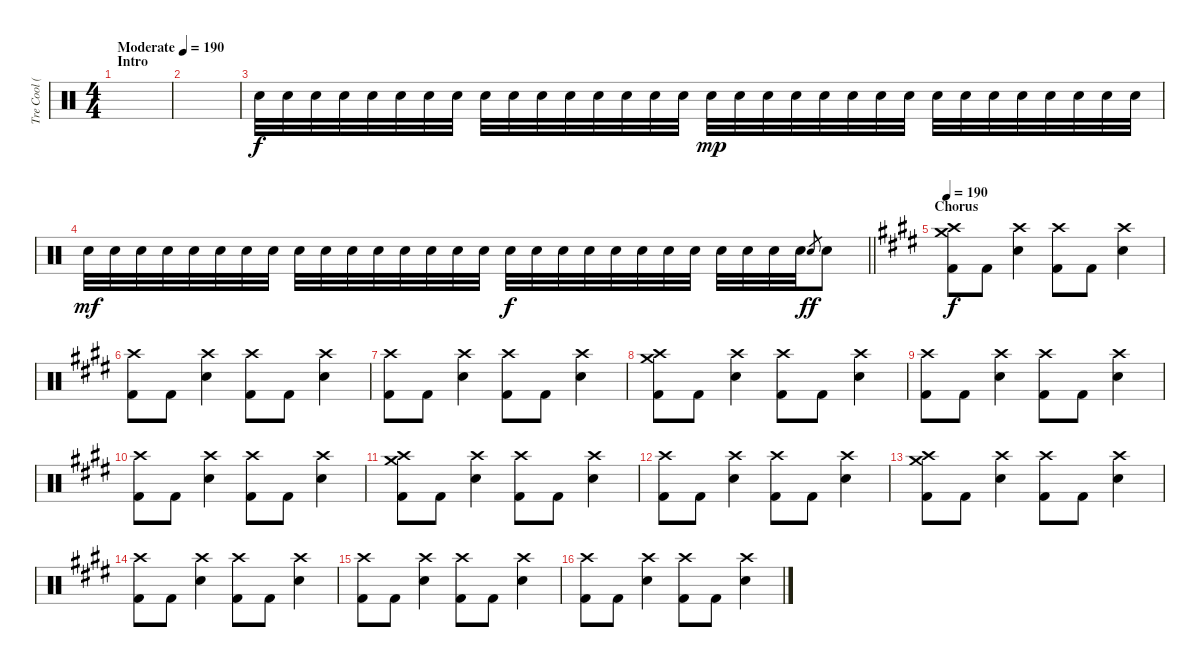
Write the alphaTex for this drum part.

\track ("Tre Cool (Drums)" "Tre Cool (") {instrument percussion}
\staff {score}
\articulation defaults
\ts (4 4)
\section ("" "Intro")
\tempo (190 "Moderate")
\tempo 100
\tempo (190 "Moderate")
\clef neutral
\ks c
|
|
"Electric Snare (hit)".32 "Electric Snare (hit)".32 "Electric Snare (hit)".32 "Electric Snare (hit)".32 "Electric Snare (hit)".32 "Electric Snare (hit)".32 "Electric Snare (hit)".32 "Electric Snare (hit)".32 "Electric Snare (hit)".32 "Electric Snare (hit)".32 "Electric Snare (hit)".32 "Electric Snare (hit)".32 "Electric Snare (hit)".32 "Electric Snare (hit)".32 "Electric Snare (hit)".32 "Electric Snare (hit)".32 "Electric Snare (hit)".32{dy mp} "Electric Snare (hit)".32 "Electric Snare (hit)".32 "Electric Snare (hit)".32 "Electric Snare (hit)".32 "Electric Snare (hit)".32 "Electric Snare (hit)".32 "Electric Snare (hit)".32 "Electric Snare (hit)".32 "Electric Snare (hit)".32 "Electric Snare (hit)".32 "Electric Snare (hit)".32 "Electric Snare (hit)".32 "Electric Snare (hit)".32 "Electric Snare (hit)".32 "Electric Snare (hit)".32 |
\barLineRight lightlight "Electric Snare (hit)".32{dy mf} "Electric Snare (hit)".32 "Electric Snare (hit)".32 "Electric Snare (hit)".32 "Electric Snare (hit)".32 "Electric Snare (hit)".32 "Electric Snare (hit)".32 "Electric Snare (hit)".32 "Electric Snare (hit)".32 "Electric Snare (hit)".32 "Electric Snare (hit)".32 "Electric Snare (hit)".32 "Electric Snare (hit)".32 "Electric Snare (hit)".32 "Electric Snare (hit)".32 "Electric Snare (hit)".32 "Electric Snare (hit)".32{dy f} "Electric Snare (hit)".32 "Electric Snare (hit)".32 "Electric Snare (hit)".32 "Electric Snare (hit)".32 "Electric Snare (hit)".32 "Electric Snare (hit)".32 "Electric Snare (hit)".32 "Electric Snare (hit)".32 "Electric Snare (hit)".32 "Electric Snare (hit)".32 "Electric Snare (hit)".32 "Electric Snare (hit)".8{gr dy ff} "Electric Snare (hit)".8
|
\section ("" "Chorus")
\tempo 190
\ks e
("Kick (hit) 2" "Crash medium (hit)" "Crash high (hit)").8{dy f} "Kick (hit) 2".8 ("Electric Snare (hit)" "Crash high (hit)").4 ("Kick (hit) 2" "Crash high (hit)").8 "Kick (hit) 2".8 ("Electric Snare (hit)" "Crash high (hit)").4 |
("Kick (hit) 2" "Crash high (hit)").8 "Kick (hit) 2".8 ("Electric Snare (hit)" "Crash high (hit)").4 ("Kick (hit) 2" "Crash high (hit)").8 "Kick (hit) 2".8 ("Electric Snare (hit)" "Crash high (hit)").4 |
("Kick (hit) 2" "Crash high (hit)").8 "Kick (hit) 2".8 ("Electric Snare (hit)" "Crash high (hit)").4 ("Kick (hit) 2" "Crash high (hit)").8 "Kick (hit) 2".8 ("Electric Snare (hit)" "Crash high (hit)").4 |
("Kick (hit) 2" "Crash medium (hit)" "Crash high (hit)").8 "Kick (hit) 2".8 ("Electric Snare (hit)" "Crash high (hit)").4 ("Kick (hit) 2" "Crash high (hit)").8 "Kick (hit) 2".8 ("Electric Snare (hit)" "Crash high (hit)").4 |
("Kick (hit) 2" "Crash high (hit)").8 "Kick (hit) 2".8 ("Electric Snare (hit)" "Crash high (hit)").4 ("Kick (hit) 2" "Crash high (hit)").8 "Kick (hit) 2".8 ("Electric Snare (hit)" "Crash high (hit)").4 |
("Kick (hit) 2" "Crash high (hit)").8 "Kick (hit) 2".8 ("Electric Snare (hit)" "Crash high (hit)").4 ("Kick (hit) 2" "Crash high (hit)").8 "Kick (hit) 2".8 ("Electric Snare (hit)" "Crash high (hit)").4 |
("Kick (hit) 2" "Crash medium (hit)" "Crash high (hit)").8 "Kick (hit) 2".8 ("Electric Snare (hit)" "Crash high (hit)").4 ("Kick (hit) 2" "Crash high (hit)").8 "Kick (hit) 2".8 ("Electric Snare (hit)" "Crash high (hit)").4 |
("Kick (hit) 2" "Crash high (hit)").8 "Kick (hit) 2".8 ("Electric Snare (hit)" "Crash high (hit)").4 ("Kick (hit) 2" "Crash high (hit)").8 "Kick (hit) 2".8 ("Electric Snare (hit)" "Crash high (hit)").4 |
("Kick (hit) 2" "Crash medium (hit)" "Crash high (hit)").8 "Kick (hit) 2".8 ("Electric Snare (hit)" "Crash high (hit)").4 ("Kick (hit) 2" "Crash high (hit)").8 "Kick (hit) 2".8 ("Electric Snare (hit)" "Crash high (hit)").4 |
("Kick (hit) 2" "Crash high (hit)").8 "Kick (hit) 2".8 ("Electric Snare (hit)" "Crash high (hit)").4 ("Kick (hit) 2" "Crash high (hit)").8 "Kick (hit) 2".8 ("Electric Snare (hit)" "Crash high (hit)").4 |
("Kick (hit) 2" "Crash high (hit)").8 "Kick (hit) 2".8 ("Electric Snare (hit)" "Crash high (hit)").4 ("Kick (hit) 2" "Crash high (hit)").8 "Kick (hit) 2".8 ("Electric Snare (hit)" "Crash high (hit)").4 |
("Kick (hit) 2" "Crash high (hit)").8 "Kick (hit) 2".8 ("Electric Snare (hit)" "Crash high (hit)").4 ("Kick (hit) 2" "Crash high (hit)").8 "Kick (hit) 2".8 ("Electric Snare (hit)" "Crash high (hit)").4
